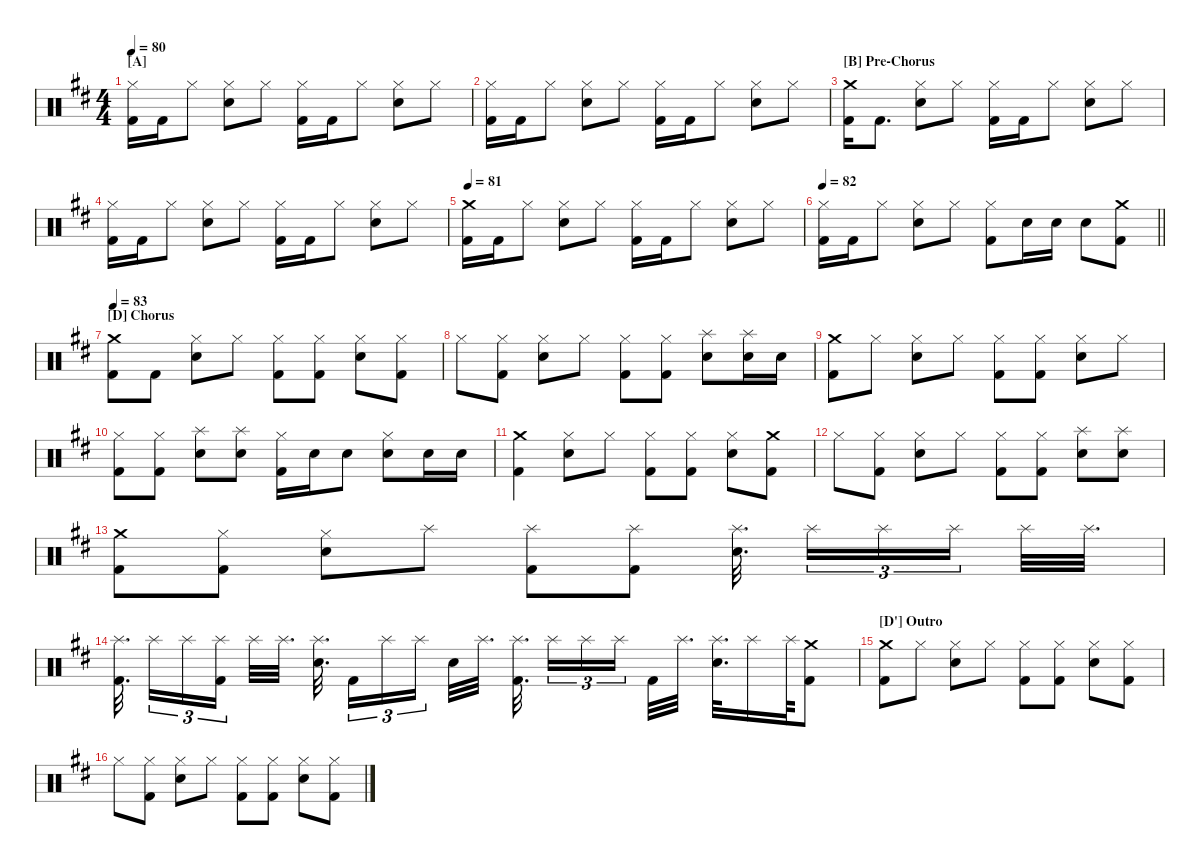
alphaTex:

\defaultSystemsLayout 4
\hideDynamics
\bracketExtendMode nobrackets
\singleTrackTrackNamePolicy hidden
\multiTrackTrackNamePolicy hidden
\otherSystemsTrackNameOrientation horizontal
\track ("Drumkit" "Drums") {defaultSystemsLayout 4 instrument percussion}
\staff {score}
\articulation defaults
\ts (4 4)
\section ("A" "")
\tempo 80
\clef neutral
\ks d
("Kick (hit) 2"{acc forcenatural} "Hi-Hat (closed)"{acc forcenatural}).16{dy f beam Down} "Kick (hit) 2"{acc forcenatural}.16{beam Down} "Hi-Hat (closed)"{acc forcenatural}.8{beam Down} ("Snare (hit) 2"{acc forcenatural} "Hi-Hat (closed)"{acc forcenatural}).8{beam Down} "Hi-Hat (closed)"{acc forcenatural}.8{beam Down} ("Kick (hit) 2"{acc forcenatural} "Hi-Hat (closed)"{acc forcenatural}).16{beam Down} "Kick (hit) 2"{acc forcenatural}.16{beam Down} "Hi-Hat (closed)"{acc forcenatural}.8{beam Down} ("Snare (hit) 2"{acc forcenatural} "Hi-Hat (closed)"{acc forcenatural}).8{beam Down} "Hi-Hat (closed)"{acc forcenatural}.8{beam Down} |
("Kick (hit) 2"{acc forcenatural} "Hi-Hat (closed)"{acc forcenatural}).16{beam Down} "Kick (hit) 2"{acc forcenatural}.16{beam Down} "Hi-Hat (closed)"{acc forcenatural}.8{beam Down} ("Snare (hit) 2"{acc forcenatural} "Hi-Hat (closed)"{acc forcenatural}).8{beam Down} "Hi-Hat (closed)"{acc forcenatural}.8{beam Down} ("Kick (hit) 2"{acc forcenatural} "Hi-Hat (closed)"{acc forcenatural}).16{beam Down} "Kick (hit) 2"{acc forcenatural}.16{beam Down} "Hi-Hat (closed)"{acc forcenatural}.8{beam Down} ("Snare (hit) 2"{acc forcenatural} "Hi-Hat (closed)"{acc forcenatural}).8{beam Down} "Hi-Hat (closed)"{acc forcenatural}.8{beam Down} |
\section ("B" "Pre-Chorus")
("Kick (hit) 2"{acc forcenatural} "Crash medium (hit)"{acc forcenatural}).16{beam Down} "Kick (hit) 2"{acc forcenatural}.8{d beam Down} ("Snare (hit) 2"{acc forcenatural} "Hi-Hat (closed)"{acc forcenatural}).8{beam Down} "Hi-Hat (closed)"{acc forcenatural}.8{beam Down} ("Kick (hit) 2"{acc forcenatural} "Hi-Hat (closed)"{acc forcenatural}).16{beam Down} "Kick (hit) 2"{acc forcenatural}.16{beam Down} "Hi-Hat (closed)"{acc forcenatural}.8{beam Down} ("Snare (hit) 2"{acc forcenatural} "Hi-Hat (closed)"{acc forcenatural}).8{beam Down} "Hi-Hat (closed)"{acc forcenatural}.8{beam Down} |
("Kick (hit) 2"{acc forcenatural} "Hi-Hat (closed)"{acc forcenatural}).16{beam Down} "Kick (hit) 2"{acc forcenatural}.16{beam Down} "Hi-Hat (closed)"{acc forcenatural}.8{beam Down} ("Snare (hit) 2"{acc forcenatural} "Hi-Hat (closed)"{acc forcenatural}).8{beam Down} "Hi-Hat (closed)"{acc forcenatural}.8{beam Down} ("Kick (hit) 2"{acc forcenatural} "Hi-Hat (closed)"{acc forcenatural}).16{beam Down} "Kick (hit) 2"{acc forcenatural}.16{beam Down} "Hi-Hat (closed)"{acc forcenatural}.8{beam Down} ("Snare (hit) 2"{acc forcenatural} "Hi-Hat (closed)"{acc forcenatural}).8{beam Down} "Hi-Hat (closed)"{acc forcenatural}.8{beam Down} |
\tempo 81
("Kick (hit) 2"{acc forcenatural} "Crash medium (hit)"{acc forcenatural}).16{beam Down} "Kick (hit) 2"{acc forcenatural}.16{beam Down} "Hi-Hat (closed)"{acc forcenatural}.8{beam Down} ("Snare (hit) 2"{acc forcenatural} "Hi-Hat (closed)"{acc forcenatural}).8{beam Down} "Hi-Hat (closed)"{acc forcenatural}.8{beam Down} ("Kick (hit) 2"{acc forcenatural} "Hi-Hat (closed)"{acc forcenatural}).16{beam Down} "Kick (hit) 2"{acc forcenatural}.16{beam Down} "Hi-Hat (closed)"{acc forcenatural}.8{beam Down} ("Snare (hit) 2"{acc forcenatural} "Hi-Hat (closed)"{acc forcenatural}).8{beam Down} "Hi-Hat (closed)"{acc forcenatural}.8{beam Down} |
\tempo 82
\barLineRight lightlight
("Kick (hit) 2"{acc forcenatural} "Hi-Hat (closed)"{acc forcenatural}).16{beam Down} "Kick (hit) 2"{acc forcenatural}.16{beam Down} "Hi-Hat (closed)"{acc forcenatural}.8{beam Down} ("Snare (hit) 2"{acc forcenatural} "Hi-Hat (closed)"{acc forcenatural}).8{beam Down} "Hi-Hat (closed)"{acc forcenatural}.8{beam Down} ("Kick (hit) 2"{acc forcenatural} "Hi-Hat (closed)"{acc forcenatural}).8{beam Down} "Snare (hit) 2"{acc forcenatural}.16{beam Down} "Snare (hit) 2"{acc forcenatural}.16{beam Down} "Snare (hit) 2"{acc forcenatural}.8{beam Down} ("Kick (hit) 2"{acc forcenatural} "Crash medium (hit)"{acc forcenatural}).8{beam Down} |
\section ("D" "Chorus")
\tempo 83
("Kick (hit) 2"{acc forcenatural} "Crash medium (hit)"{acc forcenatural}).8{beam Down} "Kick (hit) 2"{acc forcenatural}.8{beam Down} ("Snare (hit) 2"{acc forcenatural} "Hi-Hat (closed)"{acc forcenatural}).8{beam Down} "Hi-Hat (closed)"{acc forcenatural}.8{beam Down} ("Kick (hit) 2"{acc forcenatural} "Hi-Hat (closed)"{acc forcenatural}).8{beam Down} ("Kick (hit) 2"{acc forcenatural} "Hi-Hat (closed)"{acc forcenatural}).8{beam Down} ("Snare (hit) 2"{acc forcenatural} "Hi-Hat (closed)"{acc forcenatural}).8{beam Down} ("Kick (hit) 2"{acc forcenatural} "Hi-Hat (closed)"{acc forcenatural}).8{beam Down} |
"Hi-Hat (closed)"{acc forcenatural}.8{beam Down} ("Kick (hit) 2"{acc forcenatural} "Hi-Hat (closed)"{acc forcenatural}).8{beam Down} ("Snare (hit) 2"{acc forcenatural} "Hi-Hat (closed)"{acc forcenatural}).8{beam Down} "Hi-Hat (closed)"{acc forcenatural}.8{beam Down} ("Kick (hit) 2"{acc forcenatural} "Hi-Hat (closed)"{acc forcenatural}).8{beam Down} ("Kick (hit) 2"{acc forcenatural} "Hi-Hat (closed)"{acc forcenatural}).8{beam Down} ("Snare (hit) 2"{acc forcenatural} "Splash (hit)"{acc forcenatural}).8{beam Down} ("Snare (hit) 2"{acc forcenatural} "Splash (hit)"{acc forcenatural}).16{beam Down} "Snare (hit) 2"{acc forcenatural}.16{beam Down} |
("Kick (hit) 2"{acc forcenatural} "Crash medium (hit)"{acc forcenatural}).8{beam Down} "Hi-Hat (closed)"{acc forcenatural}.8{beam Down} ("Snare (hit) 2"{acc forcenatural} "Hi-Hat (closed)"{acc forcenatural}).8{beam Down} "Hi-Hat (closed)"{acc forcenatural}.8{beam Down} ("Kick (hit) 2"{acc forcenatural} "Hi-Hat (closed)"{acc forcenatural}).8{beam Down} ("Kick (hit) 2"{acc forcenatural} "Hi-Hat (closed)"{acc forcenatural}).8{beam Down} ("Snare (hit) 2"{acc forcenatural} "Hi-Hat (closed)"{acc forcenatural}).8{beam Down} "Hi-Hat (closed)"{acc forcenatural}.8{beam Down} |
("Kick (hit) 2"{acc forcenatural} "Hi-Hat (closed)"{acc forcenatural}).8{beam Down} ("Kick (hit) 2"{acc forcenatural} "Hi-Hat (closed)"{acc forcenatural}).8{beam Down} ("Snare (hit) 2"{acc forcenatural} "Splash (hit)"{acc forcenatural}).8{beam Down} ("Snare (hit) 2"{acc forcenatural} "Splash (hit)"{acc forcenatural}).8{beam Down} ("Kick (hit) 2"{acc forcenatural} "Hi-Hat (closed)"{acc forcenatural}).16{beam Down} "Snare (hit) 2"{acc forcenatural}.16{beam Down} "Snare (hit) 2"{acc forcenatural}.8{beam Down} ("Snare (hit) 2"{acc forcenatural} "Hi-Hat (closed)"{acc forcenatural}).8{beam Down} "Snare (hit) 2"{acc forcenatural}.16{beam Down} "Snare (hit) 2"{acc forcenatural}.16{beam Down} |
("Kick (hit) 2"{acc forcenatural} "Crash medium (hit)"{acc forcenatural}).4{beam Down} ("Snare (hit) 2"{acc forcenatural} "Hi-Hat (closed)"{acc forcenatural}).8{beam Down} "Hi-Hat (closed)"{acc forcenatural}.8{beam Down} ("Kick (hit) 2"{acc forcenatural} "Hi-Hat (closed)"{acc forcenatural}).8{beam Down} ("Kick (hit) 2"{acc forcenatural} "Hi-Hat (closed)"{acc forcenatural}).8{beam Down} ("Snare (hit) 2"{acc forcenatural} "Hi-Hat (closed)"{acc forcenatural}).8{beam Down} ("Kick (hit) 2"{acc forcenatural} "Crash medium (hit)"{acc forcenatural}).8{beam Down} |
"Hi-Hat (closed)"{acc forcenatural}.8{beam Down} ("Kick (hit) 2"{acc forcenatural} "Hi-Hat (closed)"{acc forcenatural}).8{beam Down} ("Snare (hit) 2"{acc forcenatural} "Hi-Hat (closed)"{acc forcenatural}).8{beam Down} "Hi-Hat (closed)"{acc forcenatural}.8{beam Down} ("Kick (hit) 2"{acc forcenatural} "Hi-Hat (closed)"{acc forcenatural}).8{beam Down} ("Kick (hit) 2"{acc forcenatural} "Hi-Hat (closed)"{acc forcenatural}).8{beam Down} ("Snare (hit) 2"{acc forcenatural} "Splash (hit)"{acc forcenatural}).8{beam Down} ("Snare (hit) 2"{acc forcenatural} "Splash (hit)"{acc forcenatural}).8{beam Down} |
("Kick (hit) 2"{acc forcenatural} "Crash medium (hit)"{acc forcenatural}).8{beam Down} ("Kick (hit) 2"{acc forcenatural} "Hi-Hat (closed)"{acc forcenatural}).8{beam Down} ("Snare (hit) 2"{acc forcenatural} "Hi-Hat (closed)"{acc forcenatural}).8{beam Down} "Splash (hit)"{acc forcenatural}.8{beam Down} ("Kick (hit) 2"{acc forcenatural} "Splash (hit)"{acc forcenatural}).8{beam Down} ("Kick (hit) 2"{acc forcenatural} "Splash (hit)"{acc forcenatural}).8{beam Down} ("Snare (hit) 2"{acc forcenatural} "Splash (hit)"{acc forcenatural}).32{d beam Down} "Splash (hit)"{acc forcenatural}.16{tu (3 2) beam Down} "Splash (hit)"{acc forcenatural}.16{tu (3 2) beam Down} "Splash (hit)"{acc forcenatural}.16{tu (3 2) beam Down} "Splash (hit)"{acc forcenatural}.32{beam Down} "Splash (hit)"{acc forcenatural}.32{d beam Down} |
("Kick (hit) 2"{acc forcenatural} "Splash (hit)"{acc forcenatural}).32{d beam Down} "Splash (hit)"{acc forcenatural}.16{tu (3 2) beam Down} "Splash (hit)"{acc forcenatural}.16{tu (3 2) beam Down} ("Kick (hit) 2"{acc forcenatural} "Splash (hit)"{acc forcenatural}).16{tu (3 2) beam Down} "Splash (hit)"{acc forcenatural}.32{beam Down} "Splash (hit)"{acc forcenatural}.32{d beam Down} ("Snare (hit) 2"{acc forcenatural} "Splash (hit)"{acc forcenatural}).32{d beam Down} "Kick (hit) 2"{acc forcenatural}.16{tu (3 2) beam Down} "Splash (hit)"{acc forcenatural}.16{tu (3 2) beam Down} "Splash (hit)"{acc forcenatural}.16{tu (3 2) beam Down} "Snare (hit) 2"{acc forcenatural}.32{beam Down} "Splash (hit)"{acc forcenatural}.32{d beam Down} ("Kick (hit) 2"{acc forcenatural} "Splash (hit)"{acc forcenatural}).32{d beam Down} "Splash (hit)"{acc forcenatural}.16{tu (3 2) beam Down} "Splash (hit)"{acc forcenatural}.16{tu (3 2) beam Down} "Splash (hit)"{acc forcenatural}.16{tu (3 2) beam Down} "Kick (hit) 2"{acc forcenatural}.32{beam Down} "Splash (hit)"{acc forcenatural}.32{d beam Down} ("Snare (hit) 2"{acc forcenatural} "Splash (hit)"{acc forcenatural}).32{d beam Down} "Splash (hit)"{acc forcenatural}.16{beam Down} "Splash (hit)"{acc forcenatural}.64{beam Down} ("Kick (hit) 2"{acc forcenatural} "Crash medium (hit)"{acc forcenatural}).8{beam Down} |
\section ("D'" "Outro")
("Kick (hit) 2"{acc forcenatural} "Crash medium (hit)"{acc forcenatural}).8{beam Down} "Hi-Hat (closed)"{acc forcenatural}.8{beam Down} ("Snare (hit) 2"{acc forcenatural} "Hi-Hat (closed)"{acc forcenatural}).8{beam Down} "Hi-Hat (closed)"{acc forcenatural}.8{beam Down} ("Kick (hit) 2"{acc forcenatural} "Hi-Hat (closed)"{acc forcenatural}).8{beam Down} ("Kick (hit) 2"{acc forcenatural} "Hi-Hat (closed)"{acc forcenatural}).8{beam Down} ("Snare (hit) 2"{acc forcenatural} "Hi-Hat (closed)"{acc forcenatural}).8{beam Down} ("Kick (hit) 2"{acc forcenatural} "Hi-Hat (closed)"{acc forcenatural}).8{beam Down} |
"Hi-Hat (closed)"{acc forcenatural}.8{beam Down} ("Kick (hit) 2"{acc forcenatural} "Hi-Hat (closed)"{acc forcenatural}).8{beam Down} ("Snare (hit) 2"{acc forcenatural} "Hi-Hat (closed)"{acc forcenatural}).8{beam Down} "Hi-Hat (closed)"{acc forcenatural}.8{beam Down} ("Kick (hit) 2"{acc forcenatural} "Hi-Hat (closed)"{acc forcenatural}).8{beam Down} ("Kick (hit) 2"{acc forcenatural} "Hi-Hat (closed)"{acc forcenatural}).8{beam Down} ("Snare (hit) 2"{acc forcenatural} "Hi-Hat (closed)"{acc forcenatural}).8{beam Down} ("Kick (hit) 2"{acc forcenatural} "Hi-Hat (closed)"{acc forcenatural}).8{beam Down}
